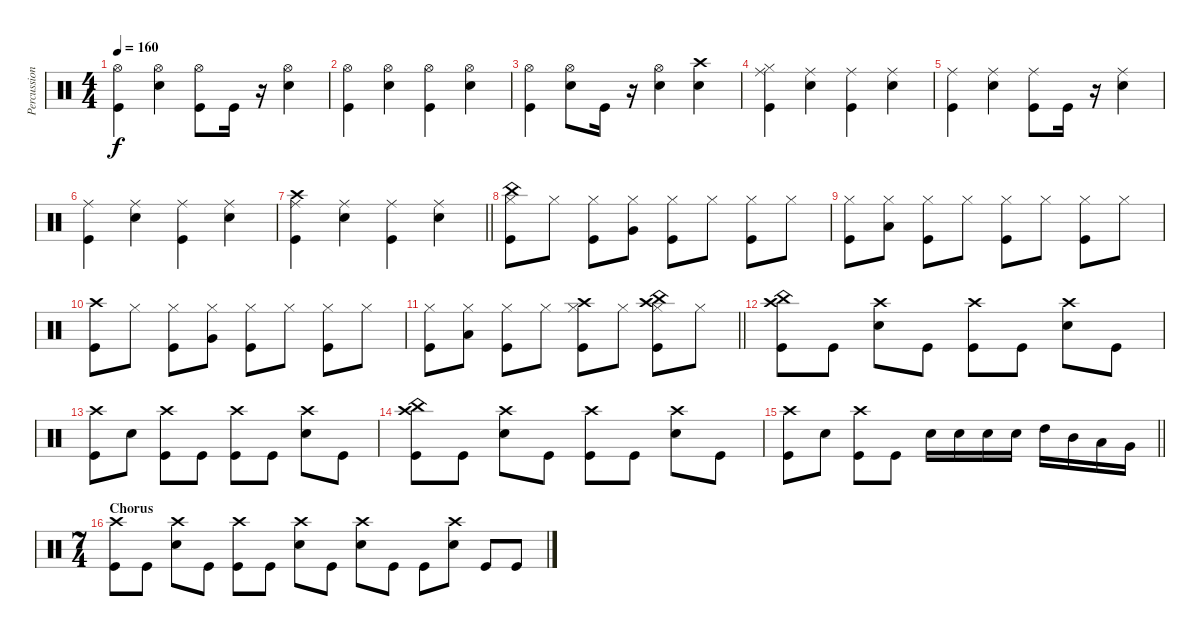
\track ("Percussion" "Percussion") {instrument percussion}
\staff {score}
\articulation defaults
\ts (4 4)
\tempo 160
\clef neutral
\ks c
("Kick (hit)" "Hi-Hat (open)").4{dy f} ("Hi-Hat (open)" "Snare (hit) 2").4 ("Kick (hit)" "Hi-Hat (open)").8 "Kick (hit)".16 r.16 ("Snare (hit) 2" "Hi-Hat (open)").4 |
("Kick (hit)" "Hi-Hat (open)").4 ("Hi-Hat (open)" "Snare (hit) 2").4 ("Kick (hit)" "Hi-Hat (open)").4 ("Snare (hit) 2" "Hi-Hat (open)").4 |
("Kick (hit)" "Hi-Hat (open)").4 ("Snare (hit) 2" "Hi-Hat (open)").8 "Kick (hit)".16 r.16 ("Snare (hit) 2" "Hi-Hat (open)").4 ("Snare (hit) 2" "Crash high (hit)").4 |
("Kick (hit)" "Ride (middle)" "Hi-Hat (closed)").4 ("Ride (middle)" "Snare (hit) 2").4 ("Ride (middle)" "Kick (hit)").4 ("Ride (middle)" "Snare (hit) 2").4 |
("Kick (hit)" "Ride (middle)").4 ("Ride (middle)" "Snare (hit) 2").4 ("Ride (middle)" "Kick (hit)").8 "Kick (hit)".16 r.16 ("Snare (hit) 2" "Ride (middle)").4 |
("Kick (hit)" "Ride (middle)").4 ("Ride (middle)" "Snare (hit) 2").4 ("Ride (middle)" "Kick (hit)").4 ("Ride (middle)" "Snare (hit) 2").4 |
\barLineRight lightlight
("Kick (hit)" "Crash high (hit)" "Ride (middle)").4 ("Ride (middle)" "Snare (hit) 2").4 ("Ride (middle)" "Kick (hit)").4 ("Ride (middle)" "Snare (hit) 2").4 |
("Kick (hit)" "Hi-Hat (closed)" "China (hit)").8 "Hi-Hat (closed)".8 ("Hi-Hat (closed)" "Kick (hit)").8 ("Hi-Hat (closed)" "Very Low Tom (hit)").8 ("Hi-Hat (closed)" "Kick (hit)").8 "Hi-Hat (closed)".8 ("Hi-Hat (closed)" "Kick (hit)").8 "Hi-Hat (closed)".8 |
("Kick (hit)" "Hi-Hat (closed)").8 ("Low Floor Tom (hit)" "Hi-Hat (closed)").8 ("Kick (hit)" "Hi-Hat (closed)").8 "Hi-Hat (closed)".8 ("Hi-Hat (closed)" "Kick (hit)").8 "Hi-Hat (closed)".8 ("Kick (hit)" "Hi-Hat (closed)").8 "Hi-Hat (closed)".8 |
("Kick (hit)" "Crash high (hit)").8 "Hi-Hat (closed)".8 ("Hi-Hat (closed)" "Kick (hit)").8 ("Hi-Hat (closed)" "Very Low Tom (hit)").8 ("Hi-Hat (closed)" "Kick (hit)").8 "Hi-Hat (closed)".8 ("Hi-Hat (closed)" "Kick (hit)").8 "Hi-Hat (closed)".8 |
\barLineRight lightlight
("Kick (hit)" "Hi-Hat (closed)").8 ("Low Floor Tom (hit)" "Hi-Hat (closed)").8 ("Kick (hit)" "Hi-Hat (closed)").8 "Hi-Hat (closed)".8 ("Hi-Hat (closed)" "Kick (hit)" "Crash high (hit)").8 "Hi-Hat (closed)".8 ("Kick (hit)" "Hi-Hat (closed)" "Crash high (hit)" "China (hit)").8 "Hi-Hat (closed)".8 |
("Crash high (hit)" "Kick (hit)" "China (hit)").8 "Kick (hit)".8 ("Snare (hit) 2" "Crash high (hit)").8 "Kick (hit)".8 ("Kick (hit)" "Crash high (hit)").8 "Kick (hit)".8 ("Snare (hit) 2" "Crash high (hit)").8 "Kick (hit)".8 |
("Kick (hit)" "Crash high (hit)").8 "Snare (hit) 2".8 ("Kick (hit)" "Crash high (hit)").8 "Kick (hit)".8 ("Kick (hit)" "Crash high (hit)").8 "Kick (hit)".8 ("Snare (hit) 2" "Crash high (hit)").8 "Kick (hit)".8 |
("Crash high (hit)" "Kick (hit)" "China (hit)").8 "Kick (hit)".8 ("Snare (hit) 2" "Crash high (hit)").8 "Kick (hit)".8 ("Kick (hit)" "Crash high (hit)").8 "Kick (hit)".8 ("Snare (hit) 2" "Crash high (hit)").8 "Kick (hit)".8 |
\barLineRight lightlight
("Kick (hit)" "Crash high (hit)").8 "Snare (hit) 2".8 ("Kick (hit)" "Crash high (hit)").8 "Kick (hit)".8 "Snare (hit) 2".16 "Snare (hit) 2".16 "Snare (hit) 2".16 "Snare (hit) 2".16 "High Tom (hit)".16 "Mid Tom (hit)".16 "Low Tom (hit)".16 "Very Low Tom (hit)".16 |
\ts (7 4)
\section ("" "Chorus")
("Kick (hit)" "Crash high (hit)").8 "Kick (hit)".8 ("Snare (hit) 2" "Crash high (hit)").8 "Kick (hit)".8 ("Kick (hit)" "Crash high (hit)").8 "Kick (hit)".8 ("Snare (hit) 2" "Crash high (hit)").8 "Kick (hit)".8 ("Snare (hit) 2" "Crash high (hit)").8 "Kick (hit)".8 "Kick (hit)".8 ("Snare (hit) 2" "Crash high (hit)").8 "Kick (hit)".8 "Kick (hit)".8
